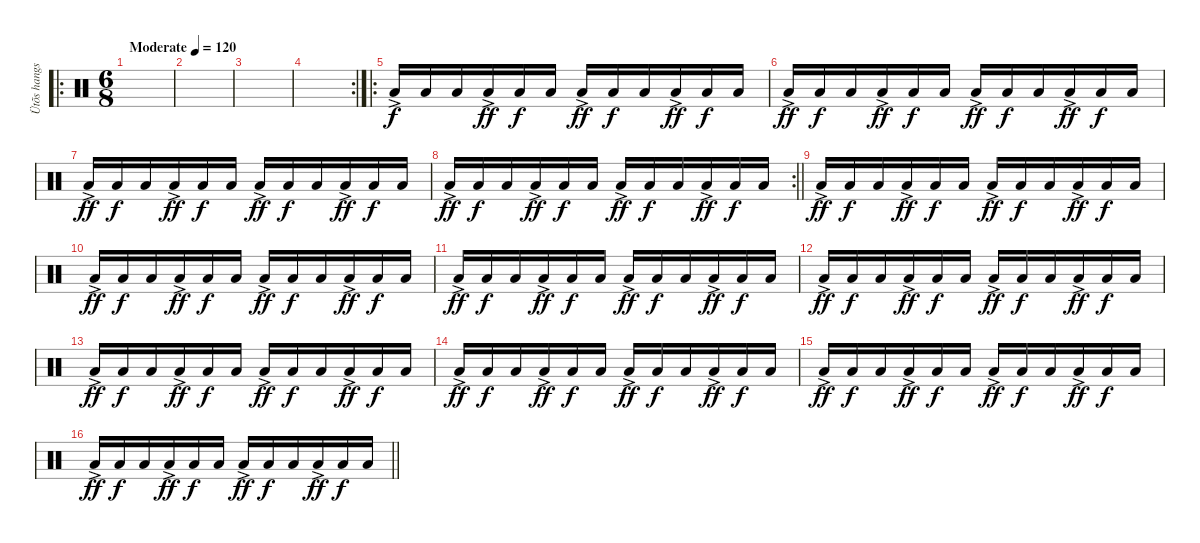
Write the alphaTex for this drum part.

\track ("Ütõs hangszer" "Ütõs hangs") {instrument percussion}
\staff {score}
\articulation defaults
\ro
\ts (6 8)
\tempo (120 "Moderate")
\clef neutral
\ks c
|
|
|
\rc 2
|
\ro "Low Floor Tom (hit)"{ac}.16 "Low Floor Tom (hit)".16{dy f} "Low Floor Tom (hit)".16 "Low Floor Tom (hit)"{ac}.16{dy ff} "Low Floor Tom (hit)".16{dy f} "Low Floor Tom (hit)".16 "Low Floor Tom (hit)"{ac}.16{dy ff} "Low Floor Tom (hit)".16{dy f} "Low Floor Tom (hit)".16 "Low Floor Tom (hit)"{ac}.16{dy ff} "Low Floor Tom (hit)".16{dy f} "Low Floor Tom (hit)".16
|
"Low Floor Tom (hit)"{ac}.16{dy ff} "Low Floor Tom (hit)".16{dy f} "Low Floor Tom (hit)".16 "Low Floor Tom (hit)"{ac}.16{dy ff} "Low Floor Tom (hit)".16{dy f} "Low Floor Tom (hit)".16 "Low Floor Tom (hit)"{ac}.16{dy ff} "Low Floor Tom (hit)".16{dy f} "Low Floor Tom (hit)".16 "Low Floor Tom (hit)"{ac}.16{dy ff} "Low Floor Tom (hit)".16{dy f} "Low Floor Tom (hit)".16 |
"Low Floor Tom (hit)"{ac}.16{dy ff} "Low Floor Tom (hit)".16{dy f} "Low Floor Tom (hit)".16 "Low Floor Tom (hit)"{ac}.16{dy ff} "Low Floor Tom (hit)".16{dy f} "Low Floor Tom (hit)".16 "Low Floor Tom (hit)"{ac}.16{dy ff} "Low Floor Tom (hit)".16{dy f} "Low Floor Tom (hit)".16 "Low Floor Tom (hit)"{ac}.16{dy ff} "Low Floor Tom (hit)".16{dy f} "Low Floor Tom (hit)".16 |
\rc 2
\barLineRight lightlight "Low Floor Tom (hit)"{ac}.16{dy ff} "Low Floor Tom (hit)".16{dy f} "Low Floor Tom (hit)".16 "Low Floor Tom (hit)"{ac}.16{dy ff} "Low Floor Tom (hit)".16{dy f} "Low Floor Tom (hit)".16 "Low Floor Tom (hit)"{ac}.16{dy ff} "Low Floor Tom (hit)".16{dy f} "Low Floor Tom (hit)".16 "Low Floor Tom (hit)"{ac}.16{dy ff} "Low Floor Tom (hit)".16{dy f} "Low Floor Tom (hit)".16
|
"Low Floor Tom (hit)"{ac}.16{dy ff} "Low Floor Tom (hit)".16{dy f} "Low Floor Tom (hit)".16 "Low Floor Tom (hit)"{ac}.16{dy ff} "Low Floor Tom (hit)".16{dy f} "Low Floor Tom (hit)".16 "Low Floor Tom (hit)"{ac}.16{dy ff} "Low Floor Tom (hit)".16{dy f} "Low Floor Tom (hit)".16 "Low Floor Tom (hit)"{ac}.16{dy ff} "Low Floor Tom (hit)".16{dy f} "Low Floor Tom (hit)".16 |
"Low Floor Tom (hit)"{ac}.16{dy ff} "Low Floor Tom (hit)".16{dy f} "Low Floor Tom (hit)".16 "Low Floor Tom (hit)"{ac}.16{dy ff} "Low Floor Tom (hit)".16{dy f} "Low Floor Tom (hit)".16 "Low Floor Tom (hit)"{ac}.16{dy ff} "Low Floor Tom (hit)".16{dy f} "Low Floor Tom (hit)".16 "Low Floor Tom (hit)"{ac}.16{dy ff} "Low Floor Tom (hit)".16{dy f} "Low Floor Tom (hit)".16 |
"Low Floor Tom (hit)"{ac}.16{dy ff} "Low Floor Tom (hit)".16{dy f} "Low Floor Tom (hit)".16 "Low Floor Tom (hit)"{ac}.16{dy ff} "Low Floor Tom (hit)".16{dy f} "Low Floor Tom (hit)".16 "Low Floor Tom (hit)"{ac}.16{dy ff} "Low Floor Tom (hit)".16{dy f} "Low Floor Tom (hit)".16 "Low Floor Tom (hit)"{ac}.16{dy ff} "Low Floor Tom (hit)".16{dy f} "Low Floor Tom (hit)".16 |
"Low Floor Tom (hit)"{ac}.16{dy ff} "Low Floor Tom (hit)".16{dy f} "Low Floor Tom (hit)".16 "Low Floor Tom (hit)"{ac}.16{dy ff} "Low Floor Tom (hit)".16{dy f} "Low Floor Tom (hit)".16 "Low Floor Tom (hit)"{ac}.16{dy ff} "Low Floor Tom (hit)".16{dy f} "Low Floor Tom (hit)".16 "Low Floor Tom (hit)"{ac}.16{dy ff} "Low Floor Tom (hit)".16{dy f} "Low Floor Tom (hit)".16 |
"Low Floor Tom (hit)"{ac}.16{dy ff} "Low Floor Tom (hit)".16{dy f} "Low Floor Tom (hit)".16 "Low Floor Tom (hit)"{ac}.16{dy ff} "Low Floor Tom (hit)".16{dy f} "Low Floor Tom (hit)".16 "Low Floor Tom (hit)"{ac}.16{dy ff} "Low Floor Tom (hit)".16{dy f} "Low Floor Tom (hit)".16 "Low Floor Tom (hit)"{ac}.16{dy ff} "Low Floor Tom (hit)".16{dy f} "Low Floor Tom (hit)".16 |
"Low Floor Tom (hit)"{ac}.16{dy ff} "Low Floor Tom (hit)".16{dy f} "Low Floor Tom (hit)".16 "Low Floor Tom (hit)"{ac}.16{dy ff} "Low Floor Tom (hit)".16{dy f} "Low Floor Tom (hit)".16 "Low Floor Tom (hit)"{ac}.16{dy ff} "Low Floor Tom (hit)".16{dy f} "Low Floor Tom (hit)".16 "Low Floor Tom (hit)"{ac}.16{dy ff} "Low Floor Tom (hit)".16{dy f} "Low Floor Tom (hit)".16 |
"Low Floor Tom (hit)"{ac}.16{dy ff} "Low Floor Tom (hit)".16{dy f} "Low Floor Tom (hit)".16 "Low Floor Tom (hit)"{ac}.16{dy ff} "Low Floor Tom (hit)".16{dy f} "Low Floor Tom (hit)".16 "Low Floor Tom (hit)"{ac}.16{dy ff} "Low Floor Tom (hit)".16{dy f} "Low Floor Tom (hit)".16 "Low Floor Tom (hit)"{ac}.16{dy ff} "Low Floor Tom (hit)".16{dy f} "Low Floor Tom (hit)".16 |
\barLineRight lightlight "Low Floor Tom (hit)"{ac}.16{dy ff} "Low Floor Tom (hit)".16{dy f} "Low Floor Tom (hit)".16 "Low Floor Tom (hit)"{ac}.16{dy ff} "Low Floor Tom (hit)".16{dy f} "Low Floor Tom (hit)".16 "Low Floor Tom (hit)"{ac}.16{dy ff} "Low Floor Tom (hit)".16{dy f} "Low Floor Tom (hit)".16 "Low Floor Tom (hit)"{ac}.16{dy ff} "Low Floor Tom (hit)".16{dy f} "Low Floor Tom (hit)".16
